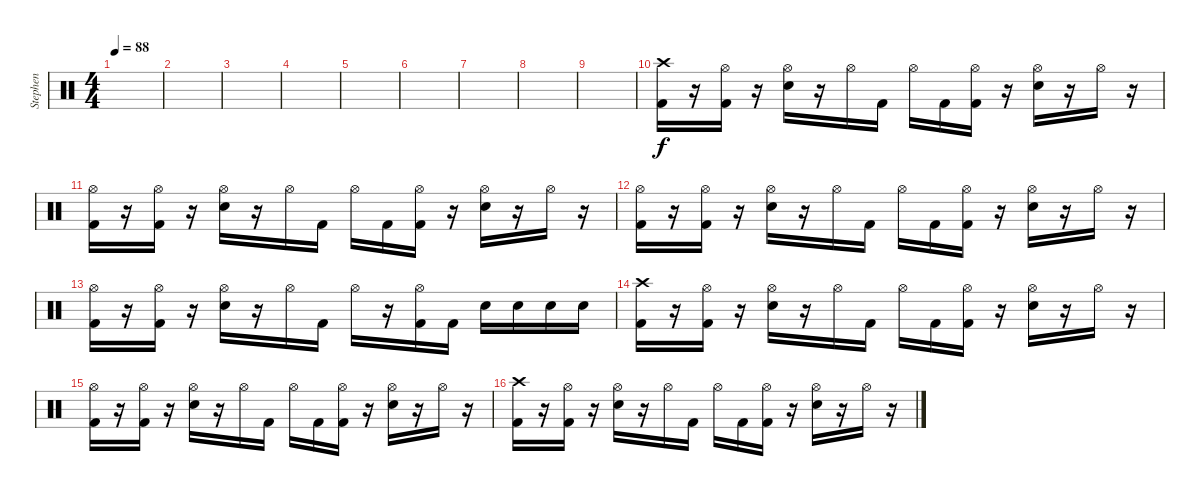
\track ("Stephen" "Stephen") {instrument percussion}
\staff {score}
\articulation defaults
\ts (4 4)
\tempo 88
\clef neutral
\ks c
|
|
|
|
|
|
|
|
|
("Crash high (hit)" "Kick (hit) 2").16{dy f} r.16 ("Hi-Hat (open)" "Kick (hit) 2").16 r.16 ("Hi-Hat (open)" "Electric Snare (hit)").16 r.16 "Hi-Hat (open)".16 "Kick (hit) 2".16 "Hi-Hat (open)".16 "Kick (hit) 2".16 ("Hi-Hat (open)" "Kick (hit) 2").16 r.16 ("Hi-Hat (open)" "Electric Snare (hit)").16 r.16 "Hi-Hat (open)".16 r.16 |
("Hi-Hat (open)" "Kick (hit) 2").16 r.16 ("Hi-Hat (open)" "Kick (hit) 2").16 r.16 ("Hi-Hat (open)" "Electric Snare (hit)").16 r.16 "Hi-Hat (open)".16 "Kick (hit) 2".16 "Hi-Hat (open)".16 "Kick (hit) 2".16 ("Hi-Hat (open)" "Kick (hit) 2").16 r.16 ("Hi-Hat (open)" "Electric Snare (hit)").16 r.16 "Hi-Hat (open)".16 r.16 |
("Hi-Hat (open)" "Kick (hit) 2").16 r.16 ("Hi-Hat (open)" "Kick (hit) 2").16 r.16 ("Hi-Hat (open)" "Electric Snare (hit)").16 r.16 "Hi-Hat (open)".16 "Kick (hit) 2".16 "Hi-Hat (open)".16 "Kick (hit) 2".16 ("Hi-Hat (open)" "Kick (hit) 2").16 r.16 ("Hi-Hat (open)" "Electric Snare (hit)").16 r.16 "Hi-Hat (open)".16 r.16 |
("Hi-Hat (open)" "Kick (hit) 2").16 r.16 ("Hi-Hat (open)" "Kick (hit) 2").16 r.16 ("Hi-Hat (open)" "Electric Snare (hit)").16 r.16 "Hi-Hat (open)".16 "Kick (hit) 2".16 "Hi-Hat (open)".16 r.16 ("Hi-Hat (open)" "Kick (hit) 2").16 "Kick (hit) 2".16 "Electric Snare (hit)".16 "Electric Snare (hit)".16 "Electric Snare (hit)".16 "Electric Snare (hit)".16 |
("Crash high (hit)" "Kick (hit) 2").16 r.16 ("Hi-Hat (open)" "Kick (hit) 2").16 r.16 ("Hi-Hat (open)" "Electric Snare (hit)").16 r.16 "Hi-Hat (open)".16 "Kick (hit) 2".16 "Hi-Hat (open)".16 "Kick (hit) 2".16 ("Hi-Hat (open)" "Kick (hit) 2").16 r.16 ("Hi-Hat (open)" "Electric Snare (hit)").16 r.16 "Hi-Hat (open)".16 r.16 |
("Hi-Hat (open)" "Kick (hit) 2").16 r.16 ("Hi-Hat (open)" "Kick (hit) 2").16 r.16 ("Hi-Hat (open)" "Electric Snare (hit)").16 r.16 "Hi-Hat (open)".16 "Kick (hit) 2".16 "Hi-Hat (open)".16 "Kick (hit) 2".16 ("Hi-Hat (open)" "Kick (hit) 2").16 r.16 ("Hi-Hat (open)" "Electric Snare (hit)").16 r.16 "Hi-Hat (open)".16 r.16 |
("Crash high (hit)" "Kick (hit) 2").16 r.16 ("Hi-Hat (open)" "Kick (hit) 2").16 r.16 ("Hi-Hat (open)" "Electric Snare (hit)").16 r.16 "Hi-Hat (open)".16 "Kick (hit) 2".16 "Hi-Hat (open)".16 "Kick (hit) 2".16 ("Hi-Hat (open)" "Kick (hit) 2").16 r.16 ("Hi-Hat (open)" "Electric Snare (hit)").16 r.16 "Hi-Hat (open)".16 r.16
